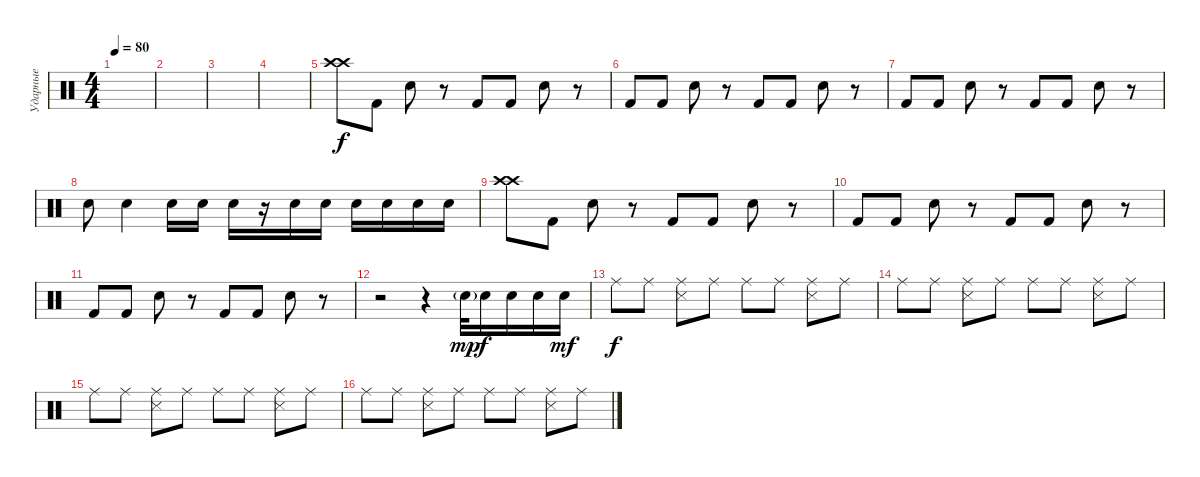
\track ("Ударные" "Ударные") {instrument percussion}
\staff {score}
\articulation defaults
\ts (4 4)
\tempo 80
\clef neutral
\ks c
|
|
|
|
("Crash high (hit)" "Crash high (hit)").8{dy f} "Kick (hit) 2".8 "Snare (hit) 2".8 r.8 "Kick (hit) 2".8 "Kick (hit) 2".8 "Snare (hit) 2".8 r.8 |
"Kick (hit) 2".8 "Kick (hit) 2".8 "Snare (hit) 2".8 r.8 "Kick (hit) 2".8 "Kick (hit) 2".8 "Snare (hit) 2".8 r.8 |
"Kick (hit) 2".8 "Kick (hit) 2".8 "Snare (hit) 2".8 r.8 "Kick (hit) 2".8 "Kick (hit) 2".8 "Snare (hit) 2".8 r.8 |
"Snare (hit) 2".8 "Snare (hit) 2".4 "Snare (hit) 2".16 "Snare (hit) 2".16 "Snare (hit) 2".16 r.16 "Snare (hit) 2".16 "Snare (hit) 2".16 "Snare (hit) 2".16 "Snare (hit) 2".16 "Snare (hit) 2".16 "Snare (hit) 2".16 |
("Crash high (hit)" "Crash high (hit)").8 "Kick (hit) 2".8 "Snare (hit) 2".8 r.8 "Kick (hit) 2".8 "Kick (hit) 2".8 "Snare (hit) 2".8 r.8 |
"Kick (hit) 2".8 "Kick (hit) 2".8 "Snare (hit) 2".8 r.8 "Kick (hit) 2".8 "Kick (hit) 2".8 "Snare (hit) 2".8 r.8 |
"Kick (hit) 2".8 "Kick (hit) 2".8 "Snare (hit) 2".8 r.8 "Kick (hit) 2".8 "Kick (hit) 2".8 "Snare (hit) 2".8 r.8 |
r.2 r.4 "Snare (hit) 2"{g}.32{dy mp} "Snare (hit) 2".16{dy f} "Snare (hit) 2".16 "Snare (hit) 2".16 "Snare (hit) 2".16{dy mf} |
"Ride (middle)".8{dy f} "Ride (middle)".8 ("Ride (middle)" "Snare (side stick) 3").8 "Ride (middle)".8 "Ride (middle)".8 "Ride (middle)".8 ("Ride (middle)" "Snare (side stick) 3").8 "Ride (middle)".8 |
"Ride (middle)".8 "Ride (middle)".8 ("Ride (middle)" "Snare (side stick) 3").8 "Ride (middle)".8 "Ride (middle)".8 "Ride (middle)".8 ("Ride (middle)" "Snare (side stick) 3").8 "Ride (middle)".8 |
"Ride (middle)".8 "Ride (middle)".8 ("Ride (middle)" "Snare (side stick) 3").8 "Ride (middle)".8 "Ride (middle)".8 "Ride (middle)".8 ("Ride (middle)" "Snare (side stick) 3").8 "Ride (middle)".8 |
"Ride (middle)".8 "Ride (middle)".8 ("Ride (middle)" "Snare (side stick) 3").8 "Ride (middle)".8 "Ride (middle)".8 "Ride (middle)".8 ("Ride (middle)" "Snare (side stick) 3").8 "Ride (middle)".8
